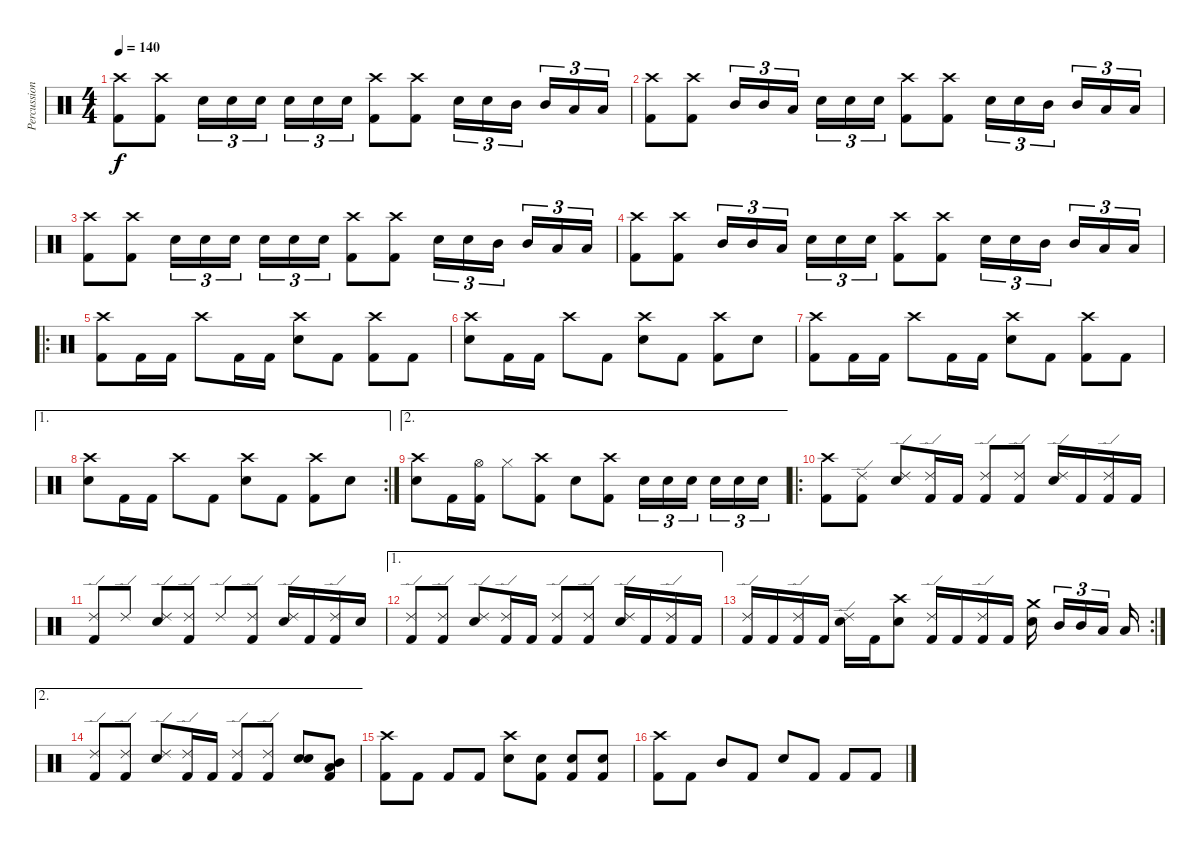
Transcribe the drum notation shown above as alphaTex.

\track ("Percussions" "Percussion") {instrument percussion}
\staff {score}
\articulation defaults
\ts (4 4)
\tempo 140
\clef neutral
\ks c
("Crash high (hit)" "Kick (hit) 2").8{dy f} ("Crash high (hit)" "Kick (hit) 2").8 "Snare (hit) 2".16{tu (3 2)} "Snare (hit) 2".16{tu (3 2)} "Snare (hit) 2".16{tu (3 2)} "Snare (hit) 2".16{tu (3 2)} "Snare (hit) 2".16{tu (3 2)} "Snare (hit) 2".16{tu (3 2)} ("Crash high (hit)" "Kick (hit) 2").8 ("Crash high (hit)" "Kick (hit) 2").8 "Snare (hit) 2".16{tu (3 2)} "Snare (hit) 2".16{tu (3 2)} "Mid Tom (hit)".16{tu (3 2)} "Mid Tom (hit)".16{tu (3 2)} "Low Tom (hit)".16{tu (3 2)} "Low Tom (hit)".16{tu (3 2)} |
("Crash high (hit)" "Kick (hit) 2").8 ("Crash high (hit)" "Kick (hit) 2").8 "Mid Tom (hit)".16{tu (3 2)} "Mid Tom (hit)".16{tu (3 2)} "Low Tom (hit)".16{tu (3 2)} "Snare (hit) 2".16{tu (3 2)} "Snare (hit) 2".16{tu (3 2)} "Snare (hit) 2".16{tu (3 2)} ("Crash high (hit)" "Kick (hit) 2").8 ("Crash high (hit)" "Kick (hit) 2").8 "Snare (hit) 2".16{tu (3 2)} "Snare (hit) 2".16{tu (3 2)} "Mid Tom (hit)".16{tu (3 2)} "Mid Tom (hit)".16{tu (3 2)} "Low Tom (hit)".16{tu (3 2)} "Low Tom (hit)".16{tu (3 2)} |
("Crash high (hit)" "Kick (hit) 2").8 ("Crash high (hit)" "Kick (hit) 2").8 "Snare (hit) 2".16{tu (3 2)} "Snare (hit) 2".16{tu (3 2)} "Snare (hit) 2".16{tu (3 2)} "Snare (hit) 2".16{tu (3 2)} "Snare (hit) 2".16{tu (3 2)} "Snare (hit) 2".16{tu (3 2)} ("Crash high (hit)" "Kick (hit) 2").8 ("Crash high (hit)" "Kick (hit) 2").8 "Snare (hit) 2".16{tu (3 2)} "Snare (hit) 2".16{tu (3 2)} "Mid Tom (hit)".16{tu (3 2)} "Mid Tom (hit)".16{tu (3 2)} "Low Tom (hit)".16{tu (3 2)} "Low Tom (hit)".16{tu (3 2)} |
("Crash high (hit)" "Kick (hit) 2").8 ("Crash high (hit)" "Kick (hit) 2").8 "Mid Tom (hit)".16{tu (3 2)} "Mid Tom (hit)".16{tu (3 2)} "Low Tom (hit)".16{tu (3 2)} "Snare (hit) 2".16{tu (3 2)} "Snare (hit) 2".16{tu (3 2)} "Snare (hit) 2".16{tu (3 2)} ("Crash high (hit)" "Kick (hit) 2").8 ("Crash high (hit)" "Kick (hit) 2").8 "Snare (hit) 2".16{tu (3 2)} "Snare (hit) 2".16{tu (3 2)} "Mid Tom (hit)".16{tu (3 2)} "Mid Tom (hit)".16{tu (3 2)} "Low Tom (hit)".16{tu (3 2)} "Low Tom (hit)".16{tu (3 2)} |
\ro
("Crash high (hit)" "Kick (hit) 2").8 "Kick (hit) 2".16 "Kick (hit) 2".16 "Crash high (hit)".8 "Kick (hit) 2".16 "Kick (hit) 2".16 ("Crash high (hit)" "Snare (hit) 2").8 "Kick (hit) 2".8 ("Crash high (hit)" "Kick (hit) 2").8 "Kick (hit) 2".8 |
("Crash high (hit)" "Snare (hit) 2").8 "Kick (hit) 2".16 "Kick (hit) 2".16 "Crash high (hit)".8 "Kick (hit) 2".8 ("Crash high (hit)" "Snare (hit) 2").8 "Kick (hit) 2".8 ("Crash high (hit)" "Kick (hit) 2").8 "Snare (hit) 2".8 |
("Crash high (hit)" "Kick (hit) 2").8 "Kick (hit) 2".16 "Kick (hit) 2".16 "Crash high (hit)".8 "Kick (hit) 2".16 "Kick (hit) 2".16 ("Crash high (hit)" "Snare (hit) 2").8 "Kick (hit) 2".8 ("Crash high (hit)" "Kick (hit) 2").8 "Kick (hit) 2".8 |
\ae 1
\rc 2
("Crash high (hit)" "Snare (hit) 2").8 "Kick (hit) 2".16 "Kick (hit) 2".16 "Crash high (hit)".8 "Kick (hit) 2".8 ("Crash high (hit)" "Snare (hit) 2").8 "Kick (hit) 2".8 ("Crash high (hit)" "Kick (hit) 2").8 "Snare (hit) 2".8 |
\ae 2
("Crash high (hit)" "Snare (hit) 2").8 "Kick (hit) 2".16 ("Hi-Hat (open)" "Kick (hit) 2").16 "Hi-Hat (closed)".8 ("Crash high (hit)" "Kick (hit) 2").8 "Snare (hit) 2".8 ("Crash high (hit)" "Kick (hit) 2").8 "Snare (hit) 2".16{tu (3 2)} "Snare (hit) 2".16{tu (3 2)} "Snare (hit) 2".16{tu (3 2)} "Snare (hit) 2".16{tu (3 2)} "Snare (hit) 2".16{tu (3 2)} "Snare (hit) 2".16{tu (3 2)} |
\ro
("Crash high (hit)" "Kick (hit) 2").8 ("Ride (edge) 2" "Kick (hit) 2").8 ("Ride (edge) 2" "Snare (hit) 2").8 ("Ride (edge) 2" "Kick (hit) 2").16 "Kick (hit) 2".16 ("Ride (edge) 2" "Kick (hit) 2").8 ("Ride (edge) 2" "Kick (hit) 2").8 ("Ride (edge) 2" "Snare (hit) 2").16 "Kick (hit) 2".16 ("Ride (edge) 2" "Kick (hit) 2").16 "Kick (hit) 2".16 |
("Ride (edge) 2" "Kick (hit) 2").8 "Ride (edge) 2".8 ("Ride (edge) 2" "Snare (hit) 2").8 ("Ride (edge) 2" "Kick (hit) 2").8 "Ride (edge) 2".8 ("Ride (edge) 2" "Kick (hit) 2").8 ("Ride (edge) 2" "Snare (hit) 2").16 "Kick (hit) 2".16 ("Ride (edge) 2" "Kick (hit) 2").16 "Snare (hit) 2".16 |
\ae 1
("Ride (edge) 2" "Kick (hit) 2").8 ("Ride (edge) 2" "Kick (hit) 2").8 ("Ride (edge) 2" "Snare (hit) 2").8 ("Ride (edge) 2" "Kick (hit) 2").16 "Kick (hit) 2".16 ("Ride (edge) 2" "Kick (hit) 2").8 ("Ride (edge) 2" "Kick (hit) 2").8 ("Ride (edge) 2" "Snare (hit) 2").16 "Kick (hit) 2".16 ("Ride (edge) 2" "Kick (hit) 2").16 "Kick (hit) 2".16 |
\rc 2
("Ride (edge) 2" "Kick (hit) 2").16 "Kick (hit) 2".16 ("Ride (edge) 2" "Kick (hit) 2").16 "Kick (hit) 2".16 ("Ride (edge) 2" "Snare (hit) 2").16 "Kick (hit) 2".16 ("Crash high (hit)" "Snare (hit) 2").8 ("Ride (edge) 2" "Kick (hit) 2").16 "Kick (hit) 2".16 ("Ride (edge) 2" "Kick (hit) 2").16 "Kick (hit) 2".16 ("Crash medium (hit)" "Snare (hit) 2").16 "Mid Tom (hit)".16{tu (3 2)} "Mid Tom (hit)".16{tu (3 2)} "Low Tom (hit)".16{tu (3 2)} "Low Floor Tom (hit)".16 |
\ae 2
("Ride (edge) 2" "Kick (hit) 2").8 ("Ride (edge) 2" "Kick (hit) 2").8 ("Ride (edge) 2" "Snare (hit) 2").8 ("Ride (edge) 2" "Kick (hit) 2").16 "Kick (hit) 2".16 ("Ride (edge) 2" "Kick (hit) 2").8 ("Ride (edge) 2" "Kick (hit) 2").8 ("Snare (hit) 2" "Snare (hit) 2").8{bd 240} ("Mid Tom (hit)" "Low Tom (hit)" "Kick (hit) 2").8 |
("Crash high (hit)" "Kick (hit) 2").8 "Kick (hit) 2".8 "Kick (hit) 2".8 "Kick (hit) 2".8 ("Crash high (hit)" "Snare (hit) 2").8 ("Snare (hit) 2" "Kick (hit) 2").8 ("Snare (hit) 2" "Kick (hit) 2").8 ("Snare (hit) 2" "Kick (hit) 2").8 |
("Crash high (hit)" "Kick (hit) 2").8 "Kick (hit) 2".8 "Mid Tom (hit)".8 "Kick (hit) 2".8 "Snare (hit) 2".8 "Kick (hit) 2".8 "Kick (hit) 2".8 "Kick (hit) 2".8
